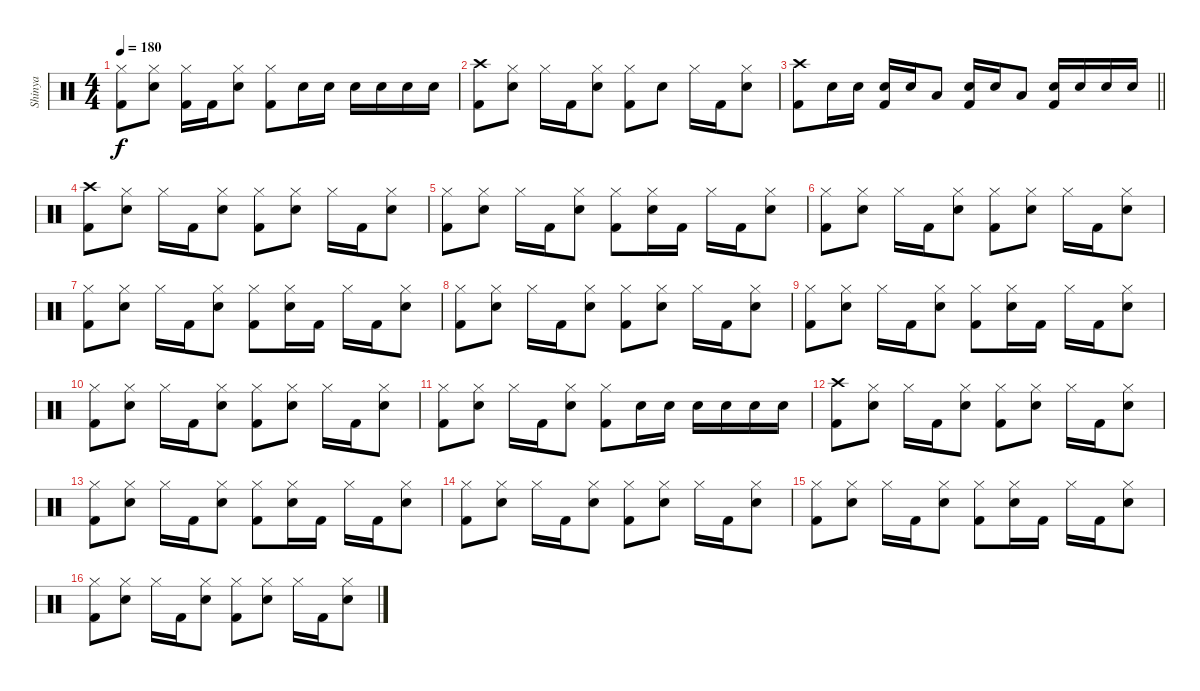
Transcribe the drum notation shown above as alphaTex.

\track ("Shinya" "Shinya") {instrument percussion}
\staff {score}
\articulation defaults
\ts (4 4)
\tempo 180
\clef neutral
\ks c
("Hi-Hat (closed)" "Kick (hit) 2").8{dy f} ("Hi-Hat (closed)" "Electric Snare (hit)").8 ("Hi-Hat (closed)" "Kick (hit) 2").16 "Kick (hit) 2".16 ("Hi-Hat (closed)" "Electric Snare (hit)").8 ("Hi-Hat (closed)" "Kick (hit) 2").8 "Electric Snare (hit)".16 "Electric Snare (hit)".16 "Electric Snare (hit)".16 "Electric Snare (hit)".16 "Electric Snare (hit)".16 "Electric Snare (hit)".16 |
("Crash high (hit)" "Kick (hit) 2").8 ("Hi-Hat (closed)" "Electric Snare (hit)").8 "Hi-Hat (closed)".16 "Kick (hit) 2".16 ("Hi-Hat (closed)" "Electric Snare (hit)").8 ("Hi-Hat (closed)" "Kick (hit) 2").8 "Electric Snare (hit)".8 "Hi-Hat (closed)".16 "Kick (hit) 2".16 ("Hi-Hat (closed)" "Electric Snare (hit)").8 |
\barLineRight lightlight
("Crash high (hit)" "Kick (hit) 2").8 "Electric Snare (hit)".16 "Electric Snare (hit)".16 ("Electric Snare (hit)" "Kick (hit) 2").16 "Electric Snare (hit)".16 "Low Tom (hit)".8 ("Electric Snare (hit)" "Kick (hit) 2").16 "Electric Snare (hit)".16 "Low Tom (hit)".8 ("Electric Snare (hit)" "Kick (hit) 2").16 "Electric Snare (hit)".16 "Electric Snare (hit)".16 "Electric Snare (hit)".16 |
("Crash high (hit)" "Kick (hit) 2").8 ("Hi-Hat (closed)" "Electric Snare (hit)").8 "Hi-Hat (closed)".16 "Kick (hit) 2".16 ("Hi-Hat (closed)" "Electric Snare (hit)").8 ("Hi-Hat (closed)" "Kick (hit) 2").8 ("Hi-Hat (closed)" "Electric Snare (hit)").8 "Hi-Hat (closed)".16 "Kick (hit) 2".16 ("Hi-Hat (closed)" "Electric Snare (hit)").8 |
("Hi-Hat (closed)" "Kick (hit) 2").8 ("Hi-Hat (closed)" "Electric Snare (hit)").8 "Hi-Hat (closed)".16 "Kick (hit) 2".16 ("Hi-Hat (closed)" "Electric Snare (hit)").8 ("Hi-Hat (closed)" "Kick (hit) 2").8 ("Hi-Hat (closed)" "Electric Snare (hit)").16 "Kick (hit) 2".16 "Hi-Hat (closed)".16 "Kick (hit) 2".16 ("Hi-Hat (closed)" "Electric Snare (hit)").8 |
("Hi-Hat (closed)" "Kick (hit) 2").8 ("Hi-Hat (closed)" "Electric Snare (hit)").8 "Hi-Hat (closed)".16 "Kick (hit) 2".16 ("Hi-Hat (closed)" "Electric Snare (hit)").8 ("Hi-Hat (closed)" "Kick (hit) 2").8 ("Hi-Hat (closed)" "Electric Snare (hit)").8 "Hi-Hat (closed)".16 "Kick (hit) 2".16 ("Hi-Hat (closed)" "Electric Snare (hit)").8 |
("Hi-Hat (closed)" "Kick (hit) 2").8 ("Hi-Hat (closed)" "Electric Snare (hit)").8 "Hi-Hat (closed)".16 "Kick (hit) 2".16 ("Hi-Hat (closed)" "Electric Snare (hit)").8 ("Hi-Hat (closed)" "Kick (hit) 2").8 ("Hi-Hat (closed)" "Electric Snare (hit)").16 "Kick (hit) 2".16 "Hi-Hat (closed)".16 "Kick (hit) 2".16 ("Hi-Hat (closed)" "Electric Snare (hit)").8 |
("Hi-Hat (closed)" "Kick (hit) 2").8 ("Hi-Hat (closed)" "Electric Snare (hit)").8 "Hi-Hat (closed)".16 "Kick (hit) 2".16 ("Hi-Hat (closed)" "Electric Snare (hit)").8 ("Hi-Hat (closed)" "Kick (hit) 2").8 ("Hi-Hat (closed)" "Electric Snare (hit)").8 "Hi-Hat (closed)".16 "Kick (hit) 2".16 ("Hi-Hat (closed)" "Electric Snare (hit)").8 |
("Hi-Hat (closed)" "Kick (hit) 2").8 ("Hi-Hat (closed)" "Electric Snare (hit)").8 "Hi-Hat (closed)".16 "Kick (hit) 2".16 ("Hi-Hat (closed)" "Electric Snare (hit)").8 ("Hi-Hat (closed)" "Kick (hit) 2").8 ("Hi-Hat (closed)" "Electric Snare (hit)").16 "Kick (hit) 2".16 "Hi-Hat (closed)".16 "Kick (hit) 2".16 ("Hi-Hat (closed)" "Electric Snare (hit)").8 |
("Hi-Hat (closed)" "Kick (hit) 2").8 ("Hi-Hat (closed)" "Electric Snare (hit)").8 "Hi-Hat (closed)".16 "Kick (hit) 2".16 ("Hi-Hat (closed)" "Electric Snare (hit)").8 ("Hi-Hat (closed)" "Kick (hit) 2").8 ("Hi-Hat (closed)" "Electric Snare (hit)").8 "Hi-Hat (closed)".16 "Kick (hit) 2".16 ("Hi-Hat (closed)" "Electric Snare (hit)").8 |
("Hi-Hat (closed)" "Kick (hit) 2").8 ("Hi-Hat (closed)" "Electric Snare (hit)").8 "Hi-Hat (closed)".16 "Kick (hit) 2".16 ("Hi-Hat (closed)" "Electric Snare (hit)").8 ("Hi-Hat (closed)" "Kick (hit) 2").8 "Electric Snare (hit)".16 "Electric Snare (hit)".16 "Electric Snare (hit)".16 "Electric Snare (hit)".16 "Electric Snare (hit)".16 "Electric Snare (hit)".16 |
("Crash high (hit)" "Kick (hit) 2").8 ("Hi-Hat (closed)" "Electric Snare (hit)").8 "Hi-Hat (closed)".16 "Kick (hit) 2".16 ("Hi-Hat (closed)" "Electric Snare (hit)").8 ("Hi-Hat (closed)" "Kick (hit) 2").8 ("Hi-Hat (closed)" "Electric Snare (hit)").8 "Hi-Hat (closed)".16 "Kick (hit) 2".16 ("Hi-Hat (closed)" "Electric Snare (hit)").8 |
("Hi-Hat (closed)" "Kick (hit) 2").8 ("Hi-Hat (closed)" "Electric Snare (hit)").8 "Hi-Hat (closed)".16 "Kick (hit) 2".16 ("Hi-Hat (closed)" "Electric Snare (hit)").8 ("Hi-Hat (closed)" "Kick (hit) 2").8 ("Hi-Hat (closed)" "Electric Snare (hit)").16 "Kick (hit) 2".16 "Hi-Hat (closed)".16 "Kick (hit) 2".16 ("Hi-Hat (closed)" "Electric Snare (hit)").8 |
("Hi-Hat (closed)" "Kick (hit) 2").8 ("Hi-Hat (closed)" "Electric Snare (hit)").8 "Hi-Hat (closed)".16 "Kick (hit) 2".16 ("Hi-Hat (closed)" "Electric Snare (hit)").8 ("Hi-Hat (closed)" "Kick (hit) 2").8 ("Hi-Hat (closed)" "Electric Snare (hit)").8 "Hi-Hat (closed)".16 "Kick (hit) 2".16 ("Hi-Hat (closed)" "Electric Snare (hit)").8 |
("Hi-Hat (closed)" "Kick (hit) 2").8 ("Hi-Hat (closed)" "Electric Snare (hit)").8 "Hi-Hat (closed)".16 "Kick (hit) 2".16 ("Hi-Hat (closed)" "Electric Snare (hit)").8 ("Hi-Hat (closed)" "Kick (hit) 2").8 ("Hi-Hat (closed)" "Electric Snare (hit)").16 "Kick (hit) 2".16 "Hi-Hat (closed)".16 "Kick (hit) 2".16 ("Hi-Hat (closed)" "Electric Snare (hit)").8 |
("Hi-Hat (closed)" "Kick (hit) 2").8 ("Hi-Hat (closed)" "Electric Snare (hit)").8 "Hi-Hat (closed)".16 "Kick (hit) 2".16 ("Hi-Hat (closed)" "Electric Snare (hit)").8 ("Hi-Hat (closed)" "Kick (hit) 2").8 ("Hi-Hat (closed)" "Electric Snare (hit)").8 "Hi-Hat (closed)".16 "Kick (hit) 2".16 ("Hi-Hat (closed)" "Electric Snare (hit)").8
